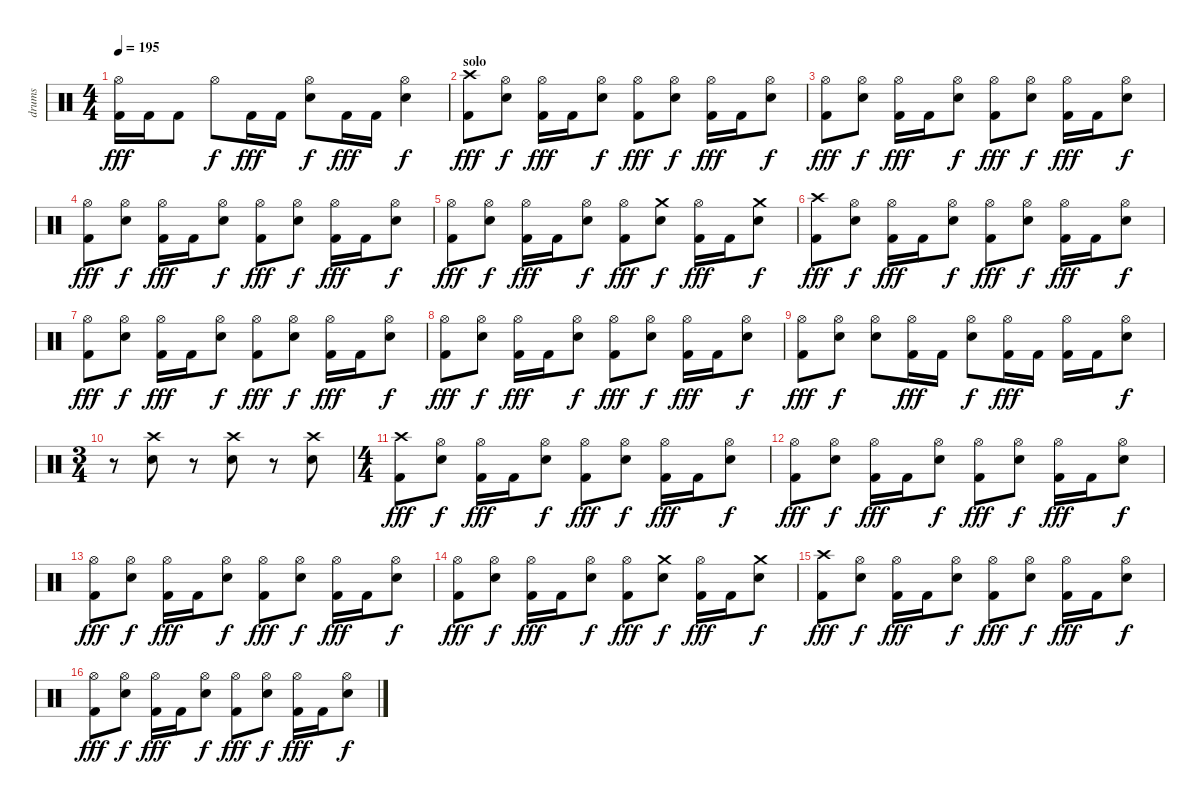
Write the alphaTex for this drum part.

\track ("drums" "drums") {instrument percussion}
\staff {score}
\articulation defaults
\ts (4 4)
\tempo 195
\clef neutral
\ks c
("Hi-Hat (open)" "Kick (hit) 2").16{dy fff} "Kick (hit) 2".16 "Kick (hit) 2".8 "Hi-Hat (open)".8{dy f} "Kick (hit) 2".16{dy fff} "Kick (hit) 2".16 ("Hi-Hat (open)" "Snare (hit) 2").8{dy f} "Kick (hit) 2".16{dy fff} "Kick (hit) 2".16 ("Hi-Hat (open)" "Snare (hit) 2").4{dy f} |
\section ("" "solo")
("Crash high (hit)" "Kick (hit) 2").8{dy fff} ("Hi-Hat (open)" "Snare (hit) 2").8{dy f} ("Hi-Hat (open)" "Kick (hit) 2").16{dy fff} "Kick (hit) 2".16 ("Hi-Hat (open)" "Snare (hit) 2").8{dy f} ("Hi-Hat (open)" "Kick (hit) 2").8{dy fff} ("Hi-Hat (open)" "Snare (hit) 2").8{dy f} ("Hi-Hat (open)" "Kick (hit) 2").16{dy fff} "Kick (hit) 2".16 ("Hi-Hat (open)" "Snare (hit) 2").8{dy f} |
("Hi-Hat (open)" "Kick (hit) 2").8{dy fff} ("Hi-Hat (open)" "Snare (hit) 2").8{dy f} ("Hi-Hat (open)" "Kick (hit) 2").16{dy fff} "Kick (hit) 2".16 ("Hi-Hat (open)" "Snare (hit) 2").8{dy f} ("Hi-Hat (open)" "Kick (hit) 2").8{dy fff} ("Hi-Hat (open)" "Snare (hit) 2").8{dy f} ("Hi-Hat (open)" "Kick (hit) 2").16{dy fff} "Kick (hit) 2".16 ("Hi-Hat (open)" "Snare (hit) 2").8{dy f} |
("Hi-Hat (open)" "Kick (hit) 2").8{dy fff} ("Hi-Hat (open)" "Snare (hit) 2").8{dy f} ("Hi-Hat (open)" "Kick (hit) 2").16{dy fff} "Kick (hit) 2".16 ("Hi-Hat (open)" "Snare (hit) 2").8{dy f} ("Hi-Hat (open)" "Kick (hit) 2").8{dy fff} ("Hi-Hat (open)" "Snare (hit) 2").8{dy f} ("Hi-Hat (open)" "Kick (hit) 2").16{dy fff} "Kick (hit) 2".16 ("Hi-Hat (open)" "Snare (hit) 2").8{dy f} |
("Hi-Hat (open)" "Kick (hit) 2").8{dy fff} ("Hi-Hat (open)" "Snare (hit) 2").8{dy f} ("Hi-Hat (open)" "Kick (hit) 2").16{dy fff} "Kick (hit) 2".16 ("Hi-Hat (open)" "Snare (hit) 2").8{dy f} ("Hi-Hat (open)" "Kick (hit) 2").8{dy fff} ("Crash medium (hit)" "Snare (hit) 2").8{dy f} ("Hi-Hat (open)" "Kick (hit) 2").16{dy fff} "Kick (hit) 2".16 ("Crash medium (hit)" "Snare (hit) 2").8{dy f} |
("Crash high (hit)" "Kick (hit) 2").8{dy fff} ("Hi-Hat (open)" "Snare (hit) 2").8{dy f} ("Hi-Hat (open)" "Kick (hit) 2").16{dy fff} "Kick (hit) 2".16 ("Hi-Hat (open)" "Snare (hit) 2").8{dy f} ("Hi-Hat (open)" "Kick (hit) 2").8{dy fff} ("Hi-Hat (open)" "Snare (hit) 2").8{dy f} ("Hi-Hat (open)" "Kick (hit) 2").16{dy fff} "Kick (hit) 2".16 ("Hi-Hat (open)" "Snare (hit) 2").8{dy f} |
("Hi-Hat (open)" "Kick (hit) 2").8{dy fff} ("Hi-Hat (open)" "Snare (hit) 2").8{dy f} ("Hi-Hat (open)" "Kick (hit) 2").16{dy fff} "Kick (hit) 2".16 ("Hi-Hat (open)" "Snare (hit) 2").8{dy f} ("Hi-Hat (open)" "Kick (hit) 2").8{dy fff} ("Hi-Hat (open)" "Snare (hit) 2").8{dy f} ("Hi-Hat (open)" "Kick (hit) 2").16{dy fff} "Kick (hit) 2".16 ("Hi-Hat (open)" "Snare (hit) 2").8{dy f} |
("Hi-Hat (open)" "Kick (hit) 2").8{dy fff} ("Hi-Hat (open)" "Snare (hit) 2").8{dy f} ("Hi-Hat (open)" "Kick (hit) 2").16{dy fff} "Kick (hit) 2".16 ("Hi-Hat (open)" "Snare (hit) 2").8{dy f} ("Hi-Hat (open)" "Kick (hit) 2").8{dy fff} ("Hi-Hat (open)" "Snare (hit) 2").8{dy f} ("Hi-Hat (open)" "Kick (hit) 2").16{dy fff} "Kick (hit) 2".16 ("Hi-Hat (open)" "Snare (hit) 2").8{dy f} |
("Hi-Hat (open)" "Kick (hit) 2").8{dy fff} ("Hi-Hat (open)" "Snare (hit) 2").8{dy f} ("Hi-Hat (open)" "Snare (hit) 2").8 ("Hi-Hat (open)" "Kick (hit) 2").16{dy fff} "Kick (hit) 2".16 ("Hi-Hat (open)" "Snare (hit) 2").8{dy f} ("Hi-Hat (open)" "Kick (hit) 2").16{dy fff} "Kick (hit) 2".16 ("Hi-Hat (open)" "Kick (hit) 2").16 "Kick (hit) 2".16 ("Hi-Hat (open)" "Snare (hit) 2").8{dy f} |
\ts (3 4)
r.8 ("Crash high (hit)" "Snare (hit) 2").8 r.8 ("Crash high (hit)" "Snare (hit) 2").8 r.8 ("Crash high (hit)" "Snare (hit) 2").8 |
\ts (4 4)
("Crash high (hit)" "Kick (hit) 2").8{dy fff} ("Hi-Hat (open)" "Snare (hit) 2").8{dy f} ("Hi-Hat (open)" "Kick (hit) 2").16{dy fff} "Kick (hit) 2".16 ("Hi-Hat (open)" "Snare (hit) 2").8{dy f} ("Hi-Hat (open)" "Kick (hit) 2").8{dy fff} ("Hi-Hat (open)" "Snare (hit) 2").8{dy f} ("Hi-Hat (open)" "Kick (hit) 2").16{dy fff} "Kick (hit) 2".16 ("Hi-Hat (open)" "Snare (hit) 2").8{dy f} |
("Hi-Hat (open)" "Kick (hit) 2").8{dy fff} ("Hi-Hat (open)" "Snare (hit) 2").8{dy f} ("Hi-Hat (open)" "Kick (hit) 2").16{dy fff} "Kick (hit) 2".16 ("Hi-Hat (open)" "Snare (hit) 2").8{dy f} ("Hi-Hat (open)" "Kick (hit) 2").8{dy fff} ("Hi-Hat (open)" "Snare (hit) 2").8{dy f} ("Hi-Hat (open)" "Kick (hit) 2").16{dy fff} "Kick (hit) 2".16 ("Hi-Hat (open)" "Snare (hit) 2").8{dy f} |
("Hi-Hat (open)" "Kick (hit) 2").8{dy fff} ("Hi-Hat (open)" "Snare (hit) 2").8{dy f} ("Hi-Hat (open)" "Kick (hit) 2").16{dy fff} "Kick (hit) 2".16 ("Hi-Hat (open)" "Snare (hit) 2").8{dy f} ("Hi-Hat (open)" "Kick (hit) 2").8{dy fff} ("Hi-Hat (open)" "Snare (hit) 2").8{dy f} ("Hi-Hat (open)" "Kick (hit) 2").16{dy fff} "Kick (hit) 2".16 ("Hi-Hat (open)" "Snare (hit) 2").8{dy f} |
("Hi-Hat (open)" "Kick (hit) 2").8{dy fff} ("Hi-Hat (open)" "Snare (hit) 2").8{dy f} ("Hi-Hat (open)" "Kick (hit) 2").16{dy fff} "Kick (hit) 2".16 ("Hi-Hat (open)" "Snare (hit) 2").8{dy f} ("Hi-Hat (open)" "Kick (hit) 2").8{dy fff} ("Crash medium (hit)" "Snare (hit) 2").8{dy f} ("Hi-Hat (open)" "Kick (hit) 2").16{dy fff} "Kick (hit) 2".16 ("Crash medium (hit)" "Snare (hit) 2").8{dy f} |
("Crash high (hit)" "Kick (hit) 2").8{dy fff} ("Hi-Hat (open)" "Snare (hit) 2").8{dy f} ("Hi-Hat (open)" "Kick (hit) 2").16{dy fff} "Kick (hit) 2".16 ("Hi-Hat (open)" "Snare (hit) 2").8{dy f} ("Hi-Hat (open)" "Kick (hit) 2").8{dy fff} ("Hi-Hat (open)" "Snare (hit) 2").8{dy f} ("Hi-Hat (open)" "Kick (hit) 2").16{dy fff} "Kick (hit) 2".16 ("Hi-Hat (open)" "Snare (hit) 2").8{dy f} |
("Hi-Hat (open)" "Kick (hit) 2").8{dy fff} ("Hi-Hat (open)" "Snare (hit) 2").8{dy f} ("Hi-Hat (open)" "Kick (hit) 2").16{dy fff} "Kick (hit) 2".16 ("Hi-Hat (open)" "Snare (hit) 2").8{dy f} ("Hi-Hat (open)" "Kick (hit) 2").8{dy fff} ("Hi-Hat (open)" "Snare (hit) 2").8{dy f} ("Hi-Hat (open)" "Kick (hit) 2").16{dy fff} "Kick (hit) 2".16 ("Hi-Hat (open)" "Snare (hit) 2").8{dy f}
